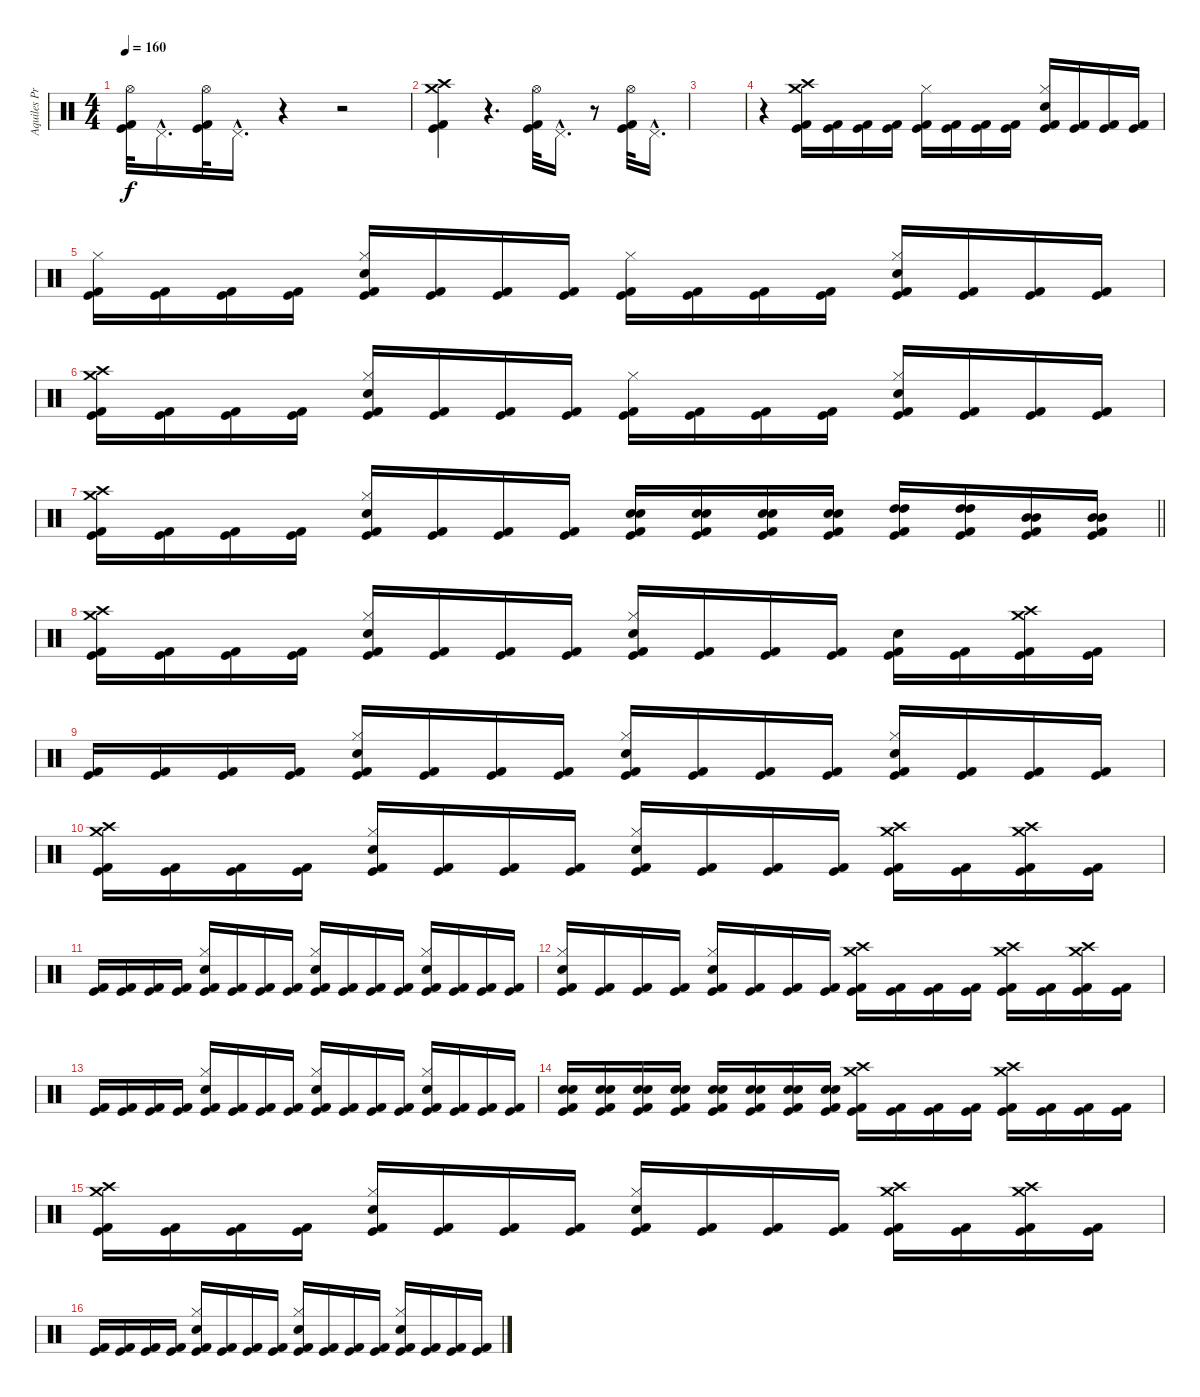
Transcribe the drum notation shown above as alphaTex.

\track ("Aquiles Priester" "Aquiles Pr") {instrument percussion}
\staff {score}
\articulation defaults
\ts (4 4)
\tempo 160
\clef neutral
\ks c
("Hi-Hat (open)" "Kick (hit)" "Kick (hit) 2").32{dy f} "Pedal Hi-Hat (hit)"{hac}.16{d} ("Hi-Hat (open)" "Kick (hit)" "Kick (hit) 2").32 "Pedal Hi-Hat (hit)"{hac}.16{d} r.4 r.2 |
("Crash medium (hit)" "Crash high (hit)" "Kick (hit) 2" "Kick (hit)").4 r.4{d} ("Hi-Hat (open)" "Kick (hit) 2" "Kick (hit)").32 "Pedal Hi-Hat (hit)"{hac}.16{d} r.8 ("Hi-Hat (open)" "Kick (hit)" "Kick (hit) 2").32 "Pedal Hi-Hat (hit)"{hac}.16{d} |
|
r.4 ("Crash medium (hit)" "Crash high (hit)" "Kick (hit) 2" "Kick (hit)").16 ("Kick (hit) 2" "Kick (hit)").16 ("Kick (hit) 2" "Kick (hit)").16 ("Kick (hit) 2" "Kick (hit)").16 ("Hi-Hat (closed)" "Kick (hit) 2" "Kick (hit)").16 ("Kick (hit) 2" "Kick (hit)").16 ("Kick (hit) 2" "Kick (hit)").16 ("Kick (hit) 2" "Kick (hit)").16 ("Hi-Hat (closed)" "Electric Snare (hit)" "Kick (hit) 2" "Kick (hit)").16 ("Kick (hit) 2" "Kick (hit)").16 ("Kick (hit) 2" "Kick (hit)").16 ("Kick (hit) 2" "Kick (hit)").16 |
("Hi-Hat (closed)" "Kick (hit) 2" "Kick (hit)").16 ("Kick (hit) 2" "Kick (hit)").16 ("Kick (hit) 2" "Kick (hit)").16 ("Kick (hit) 2" "Kick (hit)").16 ("Hi-Hat (closed)" "Electric Snare (hit)" "Kick (hit) 2" "Kick (hit)").16 ("Kick (hit) 2" "Kick (hit)").16 ("Kick (hit) 2" "Kick (hit)").16 ("Kick (hit) 2" "Kick (hit)").16 ("Hi-Hat (closed)" "Kick (hit) 2" "Kick (hit)").16 ("Kick (hit) 2" "Kick (hit)").16 ("Kick (hit) 2" "Kick (hit)").16 ("Kick (hit) 2" "Kick (hit)").16 ("Hi-Hat (closed)" "Electric Snare (hit)" "Kick (hit) 2" "Kick (hit)").16 ("Kick (hit) 2" "Kick (hit)").16 ("Kick (hit) 2" "Kick (hit)").16 ("Kick (hit) 2" "Kick (hit)").16 |
("Crash medium (hit)" "Crash high (hit)" "Kick (hit) 2" "Kick (hit)").16 ("Kick (hit) 2" "Kick (hit)").16 ("Kick (hit) 2" "Kick (hit)").16 ("Kick (hit) 2" "Kick (hit)").16 ("Hi-Hat (closed)" "Electric Snare (hit)" "Kick (hit) 2" "Kick (hit)").16 ("Kick (hit) 2" "Kick (hit)").16 ("Kick (hit) 2" "Kick (hit)").16 ("Kick (hit) 2" "Kick (hit)").16 ("Hi-Hat (closed)" "Kick (hit) 2" "Kick (hit)").16 ("Kick (hit) 2" "Kick (hit)").16 ("Kick (hit) 2" "Kick (hit)").16 ("Kick (hit) 2" "Kick (hit)").16 ("Hi-Hat (closed)" "Electric Snare (hit)" "Kick (hit) 2" "Kick (hit)").16 ("Kick (hit) 2" "Kick (hit)").16 ("Kick (hit) 2" "Kick (hit)").16 ("Kick (hit) 2" "Kick (hit)").16 |
\barLineRight lightlight
("Crash medium (hit)" "Crash high (hit)" "Kick (hit) 2" "Kick (hit)").16 ("Kick (hit) 2" "Kick (hit)").16 ("Kick (hit) 2" "Kick (hit)").16 ("Kick (hit) 2" "Kick (hit)").16 ("Hi-Hat (closed)" "Electric Snare (hit)" "Kick (hit) 2" "Kick (hit)").16 ("Kick (hit) 2" "Kick (hit)").16 ("Kick (hit) 2" "Kick (hit)").16 ("Kick (hit) 2" "Kick (hit)").16 ("Electric Snare (hit)" "Electric Snare (hit)" "Kick (hit) 2" "Kick (hit)").16 ("Electric Snare (hit)" "Electric Snare (hit)" "Kick (hit) 2" "Kick (hit)").16 ("Electric Snare (hit)" "Electric Snare (hit)" "Kick (hit) 2" "Kick (hit)").16 ("Electric Snare (hit)" "Electric Snare (hit)" "Kick (hit) 2" "Kick (hit)").16 ("High Tom (hit)" "High Tom (hit)" "Kick (hit) 2" "Kick (hit)").16 ("High Tom (hit)" "High Tom (hit)" "Kick (hit) 2" "Kick (hit)").16 ("Mid Tom (hit)" "Mid Tom (hit)" "Kick (hit) 2" "Kick (hit)").16 ("Mid Tom (hit)" "Mid Tom (hit)" "Kick (hit) 2" "Kick (hit)").16 |
("Crash medium (hit)" "Crash high (hit)" "Kick (hit) 2" "Kick (hit)").16 ("Kick (hit) 2" "Kick (hit)").16 ("Kick (hit) 2" "Kick (hit)").16 ("Kick (hit) 2" "Kick (hit)").16 ("Hi-Hat (closed)" "Electric Snare (hit)" "Kick (hit) 2" "Kick (hit)").16 ("Kick (hit) 2" "Kick (hit)").16 ("Kick (hit) 2" "Kick (hit)").16 ("Kick (hit) 2" "Kick (hit)").16 ("Hi-Hat (closed)" "Electric Snare (hit)" "Kick (hit) 2" "Kick (hit)").16 ("Kick (hit) 2" "Kick (hit)").16 ("Kick (hit) 2" "Kick (hit)").16 ("Kick (hit) 2" "Kick (hit)").16 ("Electric Snare (hit)" "Kick (hit) 2" "Kick (hit)").16 ("Kick (hit) 2" "Kick (hit)").16 ("Crash medium (hit)" "Crash high (hit)" "Kick (hit) 2" "Kick (hit)").16 ("Kick (hit) 2" "Kick (hit)").16 |
("Kick (hit) 2" "Kick (hit)").16 ("Kick (hit) 2" "Kick (hit)").16 ("Kick (hit) 2" "Kick (hit)").16 ("Kick (hit) 2" "Kick (hit)").16 ("Hi-Hat (closed)" "Electric Snare (hit)" "Kick (hit) 2" "Kick (hit)").16 ("Kick (hit) 2" "Kick (hit)").16 ("Kick (hit) 2" "Kick (hit)").16 ("Kick (hit) 2" "Kick (hit)").16 ("Hi-Hat (closed)" "Electric Snare (hit)" "Kick (hit) 2" "Kick (hit)").16 ("Kick (hit) 2" "Kick (hit)").16 ("Kick (hit) 2" "Kick (hit)").16 ("Kick (hit) 2" "Kick (hit)").16 ("Hi-Hat (closed)" "Electric Snare (hit)" "Kick (hit) 2" "Kick (hit)").16 ("Kick (hit) 2" "Kick (hit)").16 ("Kick (hit) 2" "Kick (hit)").16 ("Kick (hit) 2" "Kick (hit)").16 |
("Crash medium (hit)" "Crash high (hit)" "Kick (hit) 2" "Kick (hit)").16 ("Kick (hit) 2" "Kick (hit)").16 ("Kick (hit) 2" "Kick (hit)").16 ("Kick (hit) 2" "Kick (hit)").16 ("Hi-Hat (closed)" "Electric Snare (hit)" "Kick (hit) 2" "Kick (hit)").16 ("Kick (hit) 2" "Kick (hit)").16 ("Kick (hit) 2" "Kick (hit)").16 ("Kick (hit) 2" "Kick (hit)").16 ("Hi-Hat (closed)" "Electric Snare (hit)" "Kick (hit) 2" "Kick (hit)").16 ("Kick (hit) 2" "Kick (hit)").16 ("Kick (hit) 2" "Kick (hit)").16 ("Kick (hit) 2" "Kick (hit)").16 ("Crash medium (hit)" "Crash high (hit)" "Kick (hit) 2" "Kick (hit)").16 ("Kick (hit) 2" "Kick (hit)").16 ("Crash medium (hit)" "Crash high (hit)" "Kick (hit) 2" "Kick (hit)").16 ("Kick (hit) 2" "Kick (hit)").16 |
("Kick (hit) 2" "Kick (hit)").16 ("Kick (hit) 2" "Kick (hit)").16 ("Kick (hit) 2" "Kick (hit)").16 ("Kick (hit) 2" "Kick (hit)").16 ("Hi-Hat (closed)" "Electric Snare (hit)" "Kick (hit) 2" "Kick (hit)").16 ("Kick (hit) 2" "Kick (hit)").16 ("Kick (hit) 2" "Kick (hit)").16 ("Kick (hit) 2" "Kick (hit)").16 ("Hi-Hat (closed)" "Electric Snare (hit)" "Kick (hit) 2" "Kick (hit)").16 ("Kick (hit) 2" "Kick (hit)").16 ("Kick (hit) 2" "Kick (hit)").16 ("Kick (hit) 2" "Kick (hit)").16 ("Hi-Hat (closed)" "Electric Snare (hit)" "Kick (hit) 2" "Kick (hit)").16 ("Kick (hit) 2" "Kick (hit)").16 ("Kick (hit) 2" "Kick (hit)").16 ("Kick (hit) 2" "Kick (hit)").16 |
("Hi-Hat (closed)" "Electric Snare (hit)" "Kick (hit) 2" "Kick (hit)").16 ("Kick (hit) 2" "Kick (hit)").16 ("Kick (hit) 2" "Kick (hit)").16 ("Kick (hit) 2" "Kick (hit)").16 ("Hi-Hat (closed)" "Electric Snare (hit)" "Kick (hit) 2" "Kick (hit)").16 ("Kick (hit) 2" "Kick (hit)").16 ("Kick (hit) 2" "Kick (hit)").16 ("Kick (hit) 2" "Kick (hit)").16 ("Crash medium (hit)" "Crash high (hit)" "Kick (hit) 2" "Kick (hit)").16 ("Kick (hit) 2" "Kick (hit)").16 ("Kick (hit) 2" "Kick (hit)").16 ("Kick (hit) 2" "Kick (hit)").16 ("Crash medium (hit)" "Crash high (hit)" "Kick (hit) 2" "Kick (hit)").16 ("Kick (hit) 2" "Kick (hit)").16 ("Crash medium (hit)" "Crash high (hit)" "Kick (hit) 2" "Kick (hit)").16 ("Kick (hit) 2" "Kick (hit)").16 |
("Kick (hit) 2" "Kick (hit)").16 ("Kick (hit) 2" "Kick (hit)").16 ("Kick (hit) 2" "Kick (hit)").16 ("Kick (hit) 2" "Kick (hit)").16 ("Hi-Hat (closed)" "Electric Snare (hit)" "Kick (hit) 2" "Kick (hit)").16 ("Kick (hit) 2" "Kick (hit)").16 ("Kick (hit) 2" "Kick (hit)").16 ("Kick (hit) 2" "Kick (hit)").16 ("Hi-Hat (closed)" "Electric Snare (hit)" "Kick (hit) 2" "Kick (hit)").16 ("Kick (hit) 2" "Kick (hit)").16 ("Kick (hit) 2" "Kick (hit)").16 ("Kick (hit) 2" "Kick (hit)").16 ("Hi-Hat (closed)" "Electric Snare (hit)" "Kick (hit) 2" "Kick (hit)").16 ("Kick (hit) 2" "Kick (hit)").16 ("Kick (hit) 2" "Kick (hit)").16 ("Kick (hit) 2" "Kick (hit)").16 |
("Electric Snare (hit)" "Electric Snare (hit)" "Kick (hit) 2" "Kick (hit)").16 ("Electric Snare (hit)" "Electric Snare (hit)" "Kick (hit) 2" "Kick (hit)").16 ("Electric Snare (hit)" "Electric Snare (hit)" "Kick (hit) 2" "Kick (hit)").16 ("Electric Snare (hit)" "Electric Snare (hit)" "Kick (hit) 2" "Kick (hit)").16 ("Electric Snare (hit)" "Electric Snare (hit)" "Kick (hit) 2" "Kick (hit)").16 ("Electric Snare (hit)" "Electric Snare (hit)" "Kick (hit) 2" "Kick (hit)").16 ("Electric Snare (hit)" "Electric Snare (hit)" "Kick (hit) 2" "Kick (hit)").16 ("Electric Snare (hit)" "Electric Snare (hit)" "Kick (hit) 2" "Kick (hit)").16 ("Crash medium (hit)" "Crash high (hit)" "Kick (hit) 2" "Kick (hit)").16 ("Kick (hit) 2" "Kick (hit)").16 ("Kick (hit) 2" "Kick (hit)").16 ("Kick (hit) 2" "Kick (hit)").16 ("Crash medium (hit)" "Crash high (hit)" "Kick (hit) 2" "Kick (hit)").16 ("Kick (hit) 2" "Kick (hit)").16 ("Kick (hit) 2" "Kick (hit)").16 ("Kick (hit) 2" "Kick (hit)").16 |
("Crash medium (hit)" "Crash high (hit)" "Kick (hit) 2" "Kick (hit)").16 ("Kick (hit) 2" "Kick (hit)").16 ("Kick (hit) 2" "Kick (hit)").16 ("Kick (hit) 2" "Kick (hit)").16 ("Hi-Hat (closed)" "Electric Snare (hit)" "Kick (hit) 2" "Kick (hit)").16 ("Kick (hit) 2" "Kick (hit)").16 ("Kick (hit) 2" "Kick (hit)").16 ("Kick (hit) 2" "Kick (hit)").16 ("Hi-Hat (closed)" "Electric Snare (hit)" "Kick (hit) 2" "Kick (hit)").16 ("Kick (hit) 2" "Kick (hit)").16 ("Kick (hit) 2" "Kick (hit)").16 ("Kick (hit) 2" "Kick (hit)").16 ("Crash medium (hit)" "Crash high (hit)" "Kick (hit) 2" "Kick (hit)").16 ("Kick (hit) 2" "Kick (hit)").16 ("Crash medium (hit)" "Crash high (hit)" "Kick (hit) 2" "Kick (hit)").16 ("Kick (hit) 2" "Kick (hit)").16 |
("Kick (hit) 2" "Kick (hit)").16 ("Kick (hit) 2" "Kick (hit)").16 ("Kick (hit) 2" "Kick (hit)").16 ("Kick (hit) 2" "Kick (hit)").16 ("Hi-Hat (closed)" "Electric Snare (hit)" "Kick (hit) 2" "Kick (hit)").16 ("Kick (hit) 2" "Kick (hit)").16 ("Kick (hit) 2" "Kick (hit)").16 ("Kick (hit) 2" "Kick (hit)").16 ("Hi-Hat (closed)" "Electric Snare (hit)" "Kick (hit) 2" "Kick (hit)").16 ("Kick (hit) 2" "Kick (hit)").16 ("Kick (hit) 2" "Kick (hit)").16 ("Kick (hit) 2" "Kick (hit)").16 ("Hi-Hat (closed)" "Electric Snare (hit)" "Kick (hit) 2" "Kick (hit)").16 ("Kick (hit) 2" "Kick (hit)").16 ("Kick (hit) 2" "Kick (hit)").16 ("Kick (hit) 2" "Kick (hit)").16
